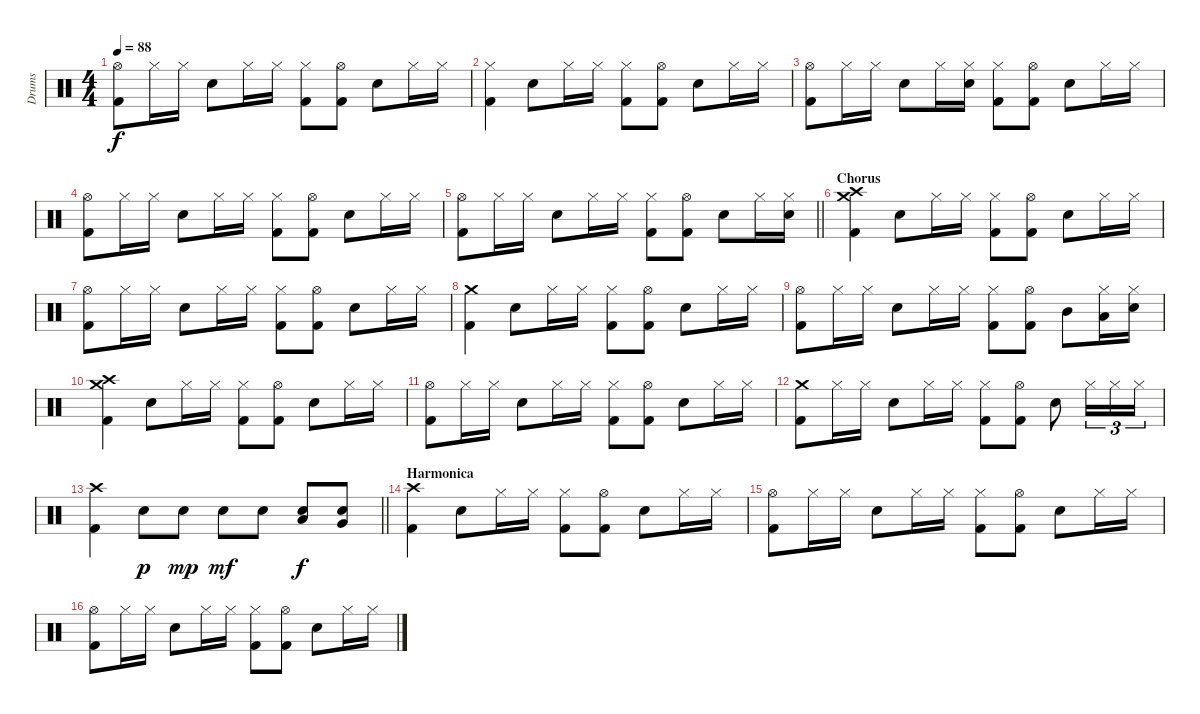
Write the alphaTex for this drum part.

\track ("Drums" "Drums") {instrument percussion}
\staff {score}
\articulation defaults
\ts (4 4)
\tempo 88
\clef neutral
\ks c
("Hi-Hat (open)" "Kick (hit) 2").8{dy f} "Hi-Hat (closed)".16 "Hi-Hat (closed)".16 "Electric Snare (hit)".8 "Hi-Hat (closed)".16 "Hi-Hat (closed)".16 ("Hi-Hat (closed)" "Kick (hit) 2").8 ("Hi-Hat (open)" "Kick (hit) 2").8 "Electric Snare (hit)".8 "Hi-Hat (closed)".16 "Hi-Hat (closed)".16 |
("Hi-Hat (closed)" "Kick (hit) 2").4 "Electric Snare (hit)".8 "Hi-Hat (closed)".16 "Hi-Hat (closed)".16 ("Hi-Hat (closed)" "Kick (hit) 2").8 ("Hi-Hat (open)" "Kick (hit) 2").8 "Electric Snare (hit)".8 "Hi-Hat (closed)".16 "Hi-Hat (closed)".16 |
("Hi-Hat (open)" "Kick (hit) 2").8 "Hi-Hat (closed)".16 "Hi-Hat (closed)".16 "Electric Snare (hit)".8 "Hi-Hat (closed)".16 ("Hi-Hat (closed)" "Electric Snare (hit)").16 ("Hi-Hat (closed)" "Kick (hit) 2").8 ("Hi-Hat (open)" "Kick (hit) 2").8 "Electric Snare (hit)".8 "Hi-Hat (closed)".16 "Hi-Hat (closed)".16 |
("Hi-Hat (open)" "Kick (hit) 2").8 "Hi-Hat (closed)".16 "Hi-Hat (closed)".16 "Electric Snare (hit)".8 "Hi-Hat (closed)".16 "Hi-Hat (closed)".16 ("Hi-Hat (closed)" "Kick (hit) 2").8 ("Hi-Hat (open)" "Kick (hit) 2").8 "Electric Snare (hit)".8 "Hi-Hat (closed)".16 "Hi-Hat (closed)".16 |
\barLineRight lightlight
("Hi-Hat (open)" "Kick (hit) 2").8 "Hi-Hat (closed)".16 "Hi-Hat (closed)".16 "Electric Snare (hit)".8 "Hi-Hat (closed)".16 "Hi-Hat (closed)".16 ("Hi-Hat (closed)" "Kick (hit) 2").8 ("Hi-Hat (open)" "Kick (hit) 2").8 "Electric Snare (hit)".8 "Hi-Hat (closed)".16 ("Hi-Hat (closed)" "Electric Snare (hit)").16 |
\section ("" "Chorus")
("Crash medium (hit)" "Crash high (hit)" "Kick (hit) 2").4 "Electric Snare (hit)".8 "Hi-Hat (closed)".16 "Hi-Hat (closed)".16 ("Hi-Hat (closed)" "Kick (hit) 2").8 ("Hi-Hat (open)" "Kick (hit) 2").8 "Electric Snare (hit)".8 "Hi-Hat (closed)".16 "Hi-Hat (closed)".16 |
("Hi-Hat (open)" "Kick (hit) 2").8 "Hi-Hat (closed)".16 "Hi-Hat (closed)".16 "Electric Snare (hit)".8 "Hi-Hat (closed)".16 "Hi-Hat (closed)".16 ("Hi-Hat (closed)" "Kick (hit) 2").8 ("Hi-Hat (open)" "Kick (hit) 2").8 "Electric Snare (hit)".8 "Hi-Hat (closed)".16 "Hi-Hat (closed)".16 |
("Crash medium (hit)" "Kick (hit) 2").4 "Electric Snare (hit)".8 "Hi-Hat (closed)".16 "Hi-Hat (closed)".16 ("Hi-Hat (closed)" "Kick (hit) 2").8 ("Hi-Hat (open)" "Kick (hit) 2").8 "Electric Snare (hit)".8 "Hi-Hat (closed)".16 "Hi-Hat (closed)".16 |
("Hi-Hat (open)" "Kick (hit) 2").8 "Hi-Hat (closed)".16 "Hi-Hat (closed)".16 "Electric Snare (hit)".8 "Hi-Hat (closed)".16 "Hi-Hat (closed)".16 ("Hi-Hat (closed)" "Kick (hit) 2").8 ("Hi-Hat (open)" "Kick (hit) 2").8 "Mid Tom (hit)".8 ("Hi-Hat (closed)" "Low Tom (hit)").16 ("Hi-Hat (closed)" "Electric Snare (hit)").16 |
("Crash medium (hit)" "Crash high (hit)" "Kick (hit) 2").4 "Electric Snare (hit)".8 "Hi-Hat (closed)".16 "Hi-Hat (closed)".16 ("Hi-Hat (closed)" "Kick (hit) 2").8 ("Hi-Hat (open)" "Kick (hit) 2").8 "Electric Snare (hit)".8 "Hi-Hat (closed)".16 "Hi-Hat (closed)".16 |
("Hi-Hat (open)" "Kick (hit) 2").8 "Hi-Hat (closed)".16 "Hi-Hat (closed)".16 "Electric Snare (hit)".8 "Hi-Hat (closed)".16 "Hi-Hat (closed)".16 ("Hi-Hat (closed)" "Kick (hit) 2").8 ("Hi-Hat (open)" "Kick (hit) 2").8 "Electric Snare (hit)".8 "Hi-Hat (closed)".16 "Hi-Hat (closed)".16 |
("Crash medium (hit)" "Kick (hit) 2").8 "Hi-Hat (closed)".16 "Hi-Hat (closed)".16 "Electric Snare (hit)".8 "Hi-Hat (closed)".16 "Hi-Hat (closed)".16 ("Hi-Hat (closed)" "Kick (hit) 2").8 ("Hi-Hat (open)" "Kick (hit) 2").8 "Electric Snare (hit)".8 "Hi-Hat (closed)".16{tu (3 2)} "Hi-Hat (closed)".16{tu (3 2)} "Hi-Hat (closed)".16{tu (3 2)} |
\barLineRight lightlight
("Crash high (hit)" "Kick (hit) 2").4 "Electric Snare (hit)".8{dy p} "Electric Snare (hit)".8{dy mp} "Electric Snare (hit)".8{dy mf} "Electric Snare (hit)".8 ("Electric Snare (hit)" "Low Tom (hit)").8{dy f} ("Electric Snare (hit)" "Very Low Tom (hit)").8 |
\section ("" "Harmonica")
("Crash high (hit)" "Kick (hit) 2").4 "Electric Snare (hit)".8 "Hi-Hat (closed)".16 "Hi-Hat (closed)".16 ("Hi-Hat (closed)" "Kick (hit) 2").8 ("Hi-Hat (open)" "Kick (hit) 2").8 "Electric Snare (hit)".8 "Hi-Hat (closed)".16 "Hi-Hat (closed)".16 |
("Hi-Hat (open)" "Kick (hit) 2").8 "Hi-Hat (closed)".16 "Hi-Hat (closed)".16 "Electric Snare (hit)".8 "Hi-Hat (closed)".16 "Hi-Hat (closed)".16 ("Hi-Hat (closed)" "Kick (hit) 2").8 ("Hi-Hat (open)" "Kick (hit) 2").8 "Electric Snare (hit)".8 "Hi-Hat (closed)".16 "Hi-Hat (closed)".16 |
("Hi-Hat (open)" "Kick (hit) 2").8 "Hi-Hat (closed)".16 "Hi-Hat (closed)".16 "Electric Snare (hit)".8 "Hi-Hat (closed)".16 "Hi-Hat (closed)".16 ("Hi-Hat (closed)" "Kick (hit) 2").8 ("Hi-Hat (open)" "Kick (hit) 2").8 "Electric Snare (hit)".8 "Hi-Hat (closed)".16 "Hi-Hat (closed)".16
